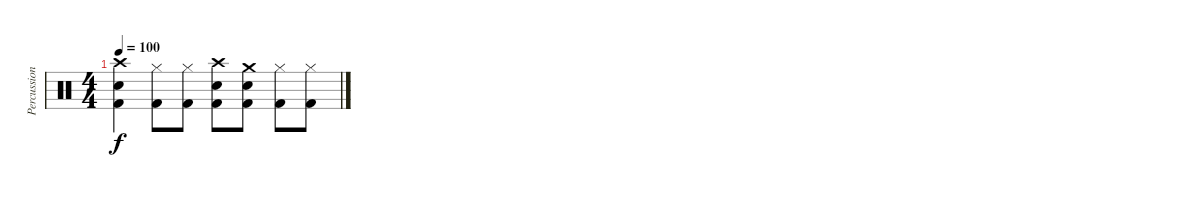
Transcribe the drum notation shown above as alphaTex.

\track ("Percussion" "Percussion") {instrument percussion}
\staff {score}
\articulation defaults
\ts (4 4)
\tempo 100
\clef neutral
\ks c
("Crash high (hit)" "Snare (hit) 2" "Kick (hit) 2").4{dy f} ("Hi-Hat (closed)" "Kick (hit) 2").8 ("Hi-Hat (closed)" "Kick (hit) 2").8 ("Crash high (hit)" "Snare (hit) 2" "Kick (hit) 2").8 ("Crash medium (hit)" "Snare (hit) 2" "Kick (hit) 2").8 ("Hi-Hat (closed)" "Kick (hit) 2").8 ("Hi-Hat (closed)" "Kick (hit) 2").8
